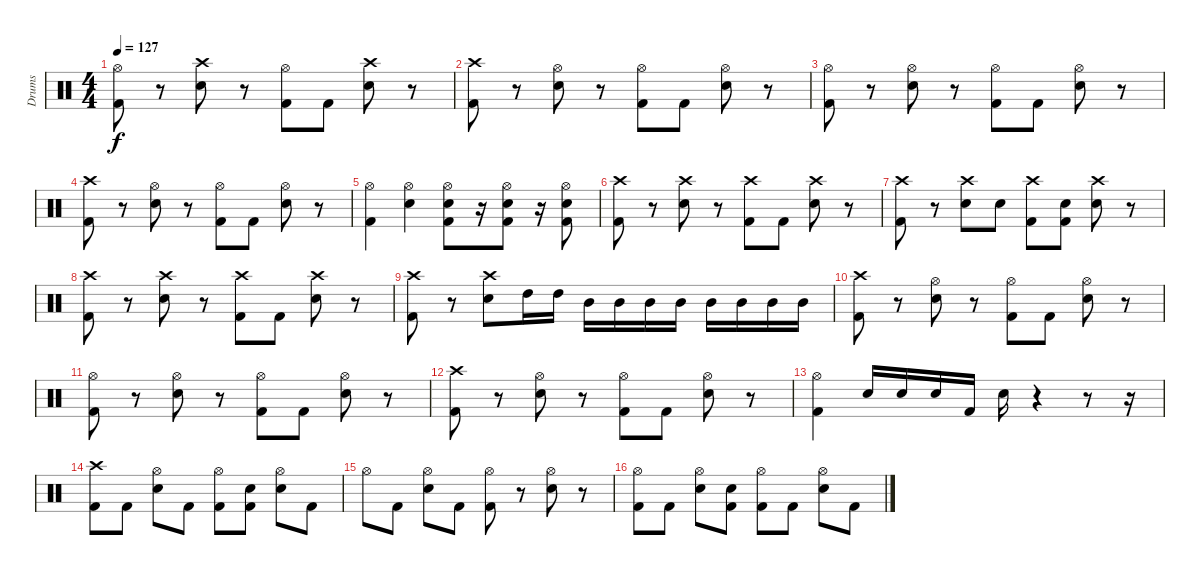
\track ("Drums" "Drums") {instrument percussion}
\staff {score}
\articulation defaults
\ts (4 4)
\tempo 127
\clef neutral
\ks c
("Hi-Hat (open)" "Kick (hit) 2").8{dy f} r.8 ("Crash high (hit)" "Snare (hit) 2").8 r.8 ("Hi-Hat (open)" "Kick (hit) 2").8 "Kick (hit) 2".8 ("Crash high (hit)" "Snare (hit) 2").8 r.8 |
("Crash high (hit)" "Kick (hit) 2").8 r.8 ("Hi-Hat (open)" "Snare (hit) 2").8 r.8 ("Hi-Hat (open)" "Kick (hit) 2").8 "Kick (hit) 2".8 ("Hi-Hat (open)" "Snare (hit) 2").8 r.8 |
("Hi-Hat (open)" "Kick (hit) 2").8 r.8 ("Hi-Hat (open)" "Snare (hit) 2").8 r.8 ("Hi-Hat (open)" "Kick (hit) 2").8 "Kick (hit) 2".8 ("Hi-Hat (open)" "Snare (hit) 2").8 r.8 |
("Crash high (hit)" "Kick (hit) 2").8 r.8 ("Hi-Hat (open)" "Snare (hit) 2").8 r.8 ("Hi-Hat (open)" "Kick (hit) 2").8 "Kick (hit) 2".8 ("Hi-Hat (open)" "Snare (hit) 2").8 r.8 |
("Hi-Hat (open)" "Kick (hit) 2").4 ("Hi-Hat (open)" "Snare (hit) 2").4 ("Hi-Hat (open)" "Kick (hit) 2" "Snare (hit) 2").8 r.16 ("Hi-Hat (open)" "Kick (hit) 2" "Snare (hit) 2").8 r.16 ("Hi-Hat (open)" "Kick (hit) 2" "Snare (hit) 2").8 |
("Crash high (hit)" "Kick (hit) 2").8 r.8 ("Crash high (hit)" "Snare (hit) 2").8 r.8 ("Crash high (hit)" "Kick (hit) 2").8 "Kick (hit) 2".8 ("Crash high (hit)" "Snare (hit) 2").8 r.8 |
("Crash high (hit)" "Kick (hit) 2").8 r.8 ("Crash high (hit)" "Snare (hit) 2").8 "Snare (hit)".8 ("Crash high (hit)" "Kick (hit) 2").8 ("Snare (hit)" "Kick (hit) 2").8 ("Crash high (hit)" "Snare (hit) 2").8 r.8 |
("Crash high (hit)" "Kick (hit) 2").8 r.8 ("Crash high (hit)" "Snare (hit) 2").8 r.8 ("Crash high (hit)" "Kick (hit) 2").8 "Kick (hit) 2".8 ("Crash high (hit)" "Snare (hit) 2").8 r.8 |
("Crash high (hit)" "Kick (hit) 2").8 r.8 ("Crash high (hit)" "Snare (hit) 2").8 "High Tom (hit)".16 "High Tom (hit)".16 "Mid Tom (hit)".16 "Mid Tom (hit)".16 "Mid Tom (hit)".16 "Mid Tom (hit)".16 "Mid Tom (hit)".16 "Mid Tom (hit)".16 "Mid Tom (hit)".16 "Mid Tom (hit)".16 |
("Crash high (hit)" "Kick (hit) 2").8 r.8 ("Hi-Hat (open)" "Snare (hit) 2").8 r.8 ("Hi-Hat (open)" "Kick (hit) 2").8 "Kick (hit) 2".8 ("Hi-Hat (open)" "Snare (hit) 2").8 r.8 |
("Hi-Hat (open)" "Kick (hit) 2").8 r.8 ("Hi-Hat (open)" "Snare (hit) 2").8 r.8 ("Hi-Hat (open)" "Kick (hit) 2").8 "Kick (hit) 2".8 ("Hi-Hat (open)" "Snare (hit) 2").8 r.8 |
("Crash high (hit)" "Kick (hit) 2").8 r.8 ("Hi-Hat (open)" "Snare (hit) 2").8 r.8 ("Hi-Hat (open)" "Kick (hit) 2").8 "Kick (hit) 2".8 ("Hi-Hat (open)" "Snare (hit) 2").8 r.8 |
("Hi-Hat (open)" "Kick (hit) 2").4 "Snare (hit) 2".16 "Snare (hit) 2".16 "Snare (hit) 2".16 "Kick (hit) 2".16 "Snare (hit) 2".16 r.4 r.8 r.16 |
("Crash high (hit)" "Kick (hit) 2").8 "Kick (hit) 2".8 ("Hi-Hat (open)" "Snare (hit) 2").8 "Kick (hit) 2".8 ("Hi-Hat (open)" "Kick (hit) 2").8 ("Snare (hit)" "Kick (hit) 2").8 ("Hi-Hat (open)" "Snare (hit) 2").8 "Kick (hit) 2".8 |
"Hi-Hat (open)".8 "Kick (hit) 2".8 ("Hi-Hat (open)" "Snare (hit) 2").8 "Kick (hit) 2".8 ("Hi-Hat (open)" "Kick (hit) 2").8 r.8 ("Hi-Hat (open)" "Snare (hit) 2").8 r.8 |
("Hi-Hat (open)" "Kick (hit) 2").8 "Kick (hit) 2".8 ("Hi-Hat (open)" "Snare (hit) 2").8 ("Snare (hit)" "Kick (hit) 2").8 ("Hi-Hat (open)" "Kick (hit) 2").8 "Kick (hit) 2".8 ("Hi-Hat (open)" "Snare (hit) 2").8 "Kick (hit) 2".8
